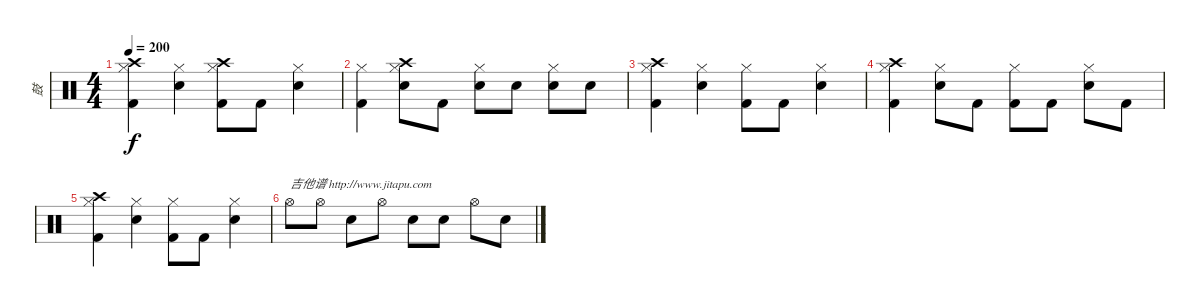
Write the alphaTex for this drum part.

\track ("鼓" "鼓") {instrument percussion}
\staff {score}
\articulation defaults
\ts (4 4)
\tempo 200
\clef neutral
\ks c
("Hi-Hat (closed)" "Crash high (hit)" "Kick (hit) 2").4{dy f} ("Hi-Hat (closed)" "Snare (hit) 2").4 ("Hi-Hat (closed)" "Crash high (hit)" "Kick (hit) 2").8 "Kick (hit) 2".8 ("Hi-Hat (closed)" "Snare (hit) 2").4 |
("Hi-Hat (closed)" "Kick (hit) 2").4 ("Hi-Hat (closed)" "Crash high (hit)" "Snare (hit) 2").8 "Kick (hit) 2".8 ("Hi-Hat (closed)" "Snare (hit) 2").8 "Snare (hit) 2".8 ("Hi-Hat (closed)" "Snare (hit) 2").8 "Snare (hit) 2".8 |
("Hi-Hat (closed)" "Crash high (hit)" "Kick (hit) 2").4 ("Hi-Hat (closed)" "Snare (hit) 2").4 ("Hi-Hat (closed)" "Kick (hit) 2").8 "Kick (hit) 2".8 ("Hi-Hat (closed)" "Snare (hit) 2").4 |
("Hi-Hat (closed)" "Crash high (hit)" "Kick (hit) 2").4 ("Hi-Hat (closed)" "Snare (hit) 2").8 "Kick (hit) 2".8 ("Hi-Hat (closed)" "Kick (hit) 2").8 "Kick (hit) 2".8 ("Hi-Hat (closed)" "Snare (hit) 2").8 "Kick (hit) 2".8 |
("Hi-Hat (closed)" "Crash high (hit)" "Kick (hit) 2").4 ("Hi-Hat (closed)" "Snare (hit) 2").4 ("Hi-Hat (closed)" "Kick (hit) 2").8 "Kick (hit) 2".8 ("Hi-Hat (closed)" "Snare (hit) 2").4 |
"Hi-Hat (open)".8{txt "吉他谱 http://www.jitapu.com"} "Hi-Hat (open)".8 "Snare (hit) 2".8 "Hi-Hat (open)".8 "Snare (hit) 2".8 "Snare (hit) 2".8 "Hi-Hat (open)".8 "Snare (hit) 2".8
